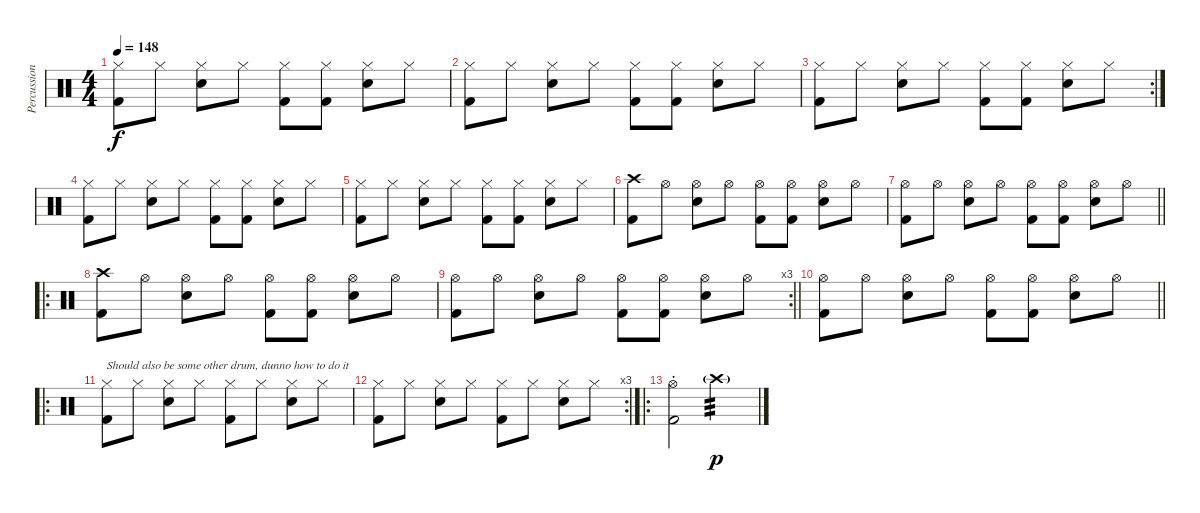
\track ("Percussion" "Percussion") {instrument percussion}
\staff {score}
\articulation defaults
\ts (4 4)
\tempo 148
\clef neutral
\ks c
("Hi-Hat (closed)" "Kick (hit) 2").8{dy f} "Hi-Hat (closed)".8 ("Hi-Hat (closed)" "Snare (hit) 2").8 "Hi-Hat (closed)".8 ("Hi-Hat (closed)" "Kick (hit) 2").8 ("Hi-Hat (closed)" "Kick (hit) 2").8 ("Hi-Hat (closed)" "Snare (hit) 2").8 "Hi-Hat (closed)".8 |
("Hi-Hat (closed)" "Kick (hit) 2").8 "Hi-Hat (closed)".8 ("Hi-Hat (closed)" "Snare (hit) 2").8 "Hi-Hat (closed)".8 ("Hi-Hat (closed)" "Kick (hit) 2").8 ("Hi-Hat (closed)" "Kick (hit) 2").8 ("Hi-Hat (closed)" "Snare (hit) 2").8 "Hi-Hat (closed)".8 |
\rc 2
("Hi-Hat (closed)" "Kick (hit) 2").8 "Hi-Hat (closed)".8 ("Hi-Hat (closed)" "Snare (hit) 2").8 "Hi-Hat (closed)".8 ("Hi-Hat (closed)" "Kick (hit) 2").8 ("Hi-Hat (closed)" "Kick (hit) 2").8 ("Hi-Hat (closed)" "Snare (hit) 2").8 "Hi-Hat (closed)".8 |
("Hi-Hat (closed)" "Kick (hit) 2").8 "Hi-Hat (closed)".8 ("Hi-Hat (closed)" "Snare (hit) 2").8 "Hi-Hat (closed)".8 ("Hi-Hat (closed)" "Kick (hit) 2").8 ("Hi-Hat (closed)" "Kick (hit) 2").8 ("Hi-Hat (closed)" "Snare (hit) 2").8 "Hi-Hat (closed)".8 |
("Hi-Hat (closed)" "Kick (hit) 2").8 "Hi-Hat (closed)".8 ("Hi-Hat (closed)" "Snare (hit) 2").8 "Hi-Hat (closed)".8 ("Hi-Hat (closed)" "Kick (hit) 2").8 ("Hi-Hat (closed)" "Kick (hit) 2").8 ("Hi-Hat (closed)" "Snare (hit) 2").8 "Hi-Hat (closed)".8 |
("Crash high (hit)" "Kick (hit) 2").8 "Hi-Hat (open)".8 ("Hi-Hat (open)" "Snare (hit) 2").8 "Hi-Hat (open)".8 ("Hi-Hat (open)" "Kick (hit) 2").8 ("Hi-Hat (open)" "Kick (hit) 2").8 ("Hi-Hat (open)" "Snare (hit) 2").8 "Hi-Hat (open)".8 |
\barLineRight lightlight
("Hi-Hat (open)" "Kick (hit) 2").8 "Hi-Hat (open)".8 ("Hi-Hat (open)" "Snare (hit) 2").8 "Hi-Hat (open)".8 ("Hi-Hat (open)" "Kick (hit) 2").8 ("Hi-Hat (open)" "Kick (hit) 2").8 ("Hi-Hat (open)" "Snare (hit) 2").8 "Hi-Hat (open)".8 |
\ro
("Crash high (hit)" "Kick (hit) 2").8 "Hi-Hat (open)".8 ("Hi-Hat (open)" "Snare (hit) 2").8 "Hi-Hat (open)".8 ("Hi-Hat (open)" "Kick (hit) 2").8 ("Hi-Hat (open)" "Kick (hit) 2").8 ("Hi-Hat (open)" "Snare (hit) 2").8 "Hi-Hat (open)".8 |
\rc 3
\barLineRight lightlight
("Hi-Hat (open)" "Kick (hit) 2").8 "Hi-Hat (open)".8 ("Hi-Hat (open)" "Snare (hit) 2").8 "Hi-Hat (open)".8 ("Hi-Hat (open)" "Kick (hit) 2").8 ("Hi-Hat (open)" "Kick (hit) 2").8 ("Hi-Hat (open)" "Snare (hit) 2").8 "Hi-Hat (open)".8 |
\barLineRight lightlight
("Hi-Hat (open)" "Kick (hit) 2").8 "Hi-Hat (open)".8 ("Hi-Hat (open)" "Snare (hit) 2").8 "Hi-Hat (open)".8 ("Hi-Hat (open)" "Kick (hit) 2").8 ("Hi-Hat (open)" "Kick (hit) 2").8 ("Hi-Hat (open)" "Snare (hit) 2").8 "Hi-Hat (open)".8 |
\ro
("Hi-Hat (closed)" "Kick (hit) 2").8{txt "Should also be some other drum, dunno how to do it"} "Hi-Hat (closed)".8 ("Hi-Hat (closed)" "Snare (hit) 2").8 "Hi-Hat (closed)".8 ("Hi-Hat (closed)" "Kick (hit) 2").8 "Hi-Hat (closed)".8 ("Hi-Hat (closed)" "Snare (hit) 2").8 "Hi-Hat (closed)".8 |
\rc 3
("Hi-Hat (closed)" "Kick (hit) 2").8 "Hi-Hat (closed)".8 ("Hi-Hat (closed)" "Snare (hit) 2").8 "Hi-Hat (closed)".8 ("Hi-Hat (closed)" "Kick (hit) 2").8 "Hi-Hat (closed)".8 ("Hi-Hat (closed)" "Snare (hit) 2").8 "Hi-Hat (closed)".8 |
\ro
("Hi-Hat (open)"{st} "Kick (hit) 2").2 "Crash high (hit)"{g}.2{tp 3 dy p}
